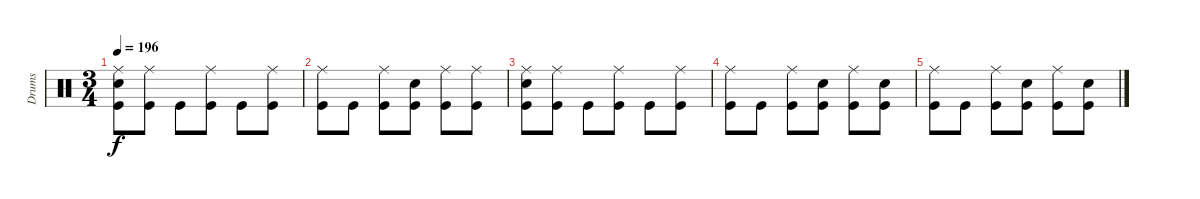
\track ("Drums" "Drums") {instrument percussion}
\staff {score}
\articulation defaults
\ts (3 4)
\tempo 196
\clef neutral
\ks c
("Ride (middle)" "Electric Snare (hit)" "Kick (hit)").8{dy f} ("Ride (middle)" "Kick (hit)").8 "Kick (hit)".8 ("Ride (middle)" "Kick (hit)").8 "Kick (hit)".8 ("Ride (middle)" "Kick (hit)").8 |
("Ride (middle)" "Kick (hit)").8 "Kick (hit)".8 ("Ride (middle)" "Kick (hit)").8 ("Electric Snare (hit)" "Kick (hit)").8 ("Ride (middle)" "Kick (hit)").8 ("Ride (middle)" "Kick (hit)").8 |
("Ride (middle)" "Electric Snare (hit)" "Kick (hit)").8 ("Ride (middle)" "Kick (hit)").8 "Kick (hit)".8 ("Ride (middle)" "Kick (hit)").8 "Kick (hit)".8 ("Ride (middle)" "Kick (hit)").8 |
("Ride (middle)" "Kick (hit)").8 "Kick (hit)".8 ("Ride (middle)" "Kick (hit)").8 ("Electric Snare (hit)" "Kick (hit)").8 ("Ride (middle)" "Kick (hit)").8 ("Electric Snare (hit)" "Kick (hit)").8 |
("Ride (middle)" "Kick (hit)").8 "Kick (hit)".8 ("Ride (middle)" "Kick (hit)").8 ("Electric Snare (hit)" "Kick (hit)").8 ("Ride (middle)" "Kick (hit)").8 ("Electric Snare (hit)" "Kick (hit)").8
